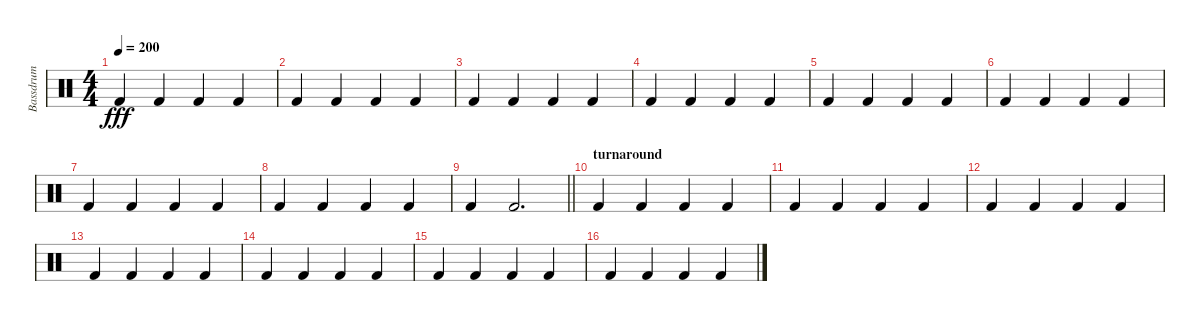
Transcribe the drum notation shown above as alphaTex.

\track ("Bassdrum" "Bassdrum") {instrument percussion}
\staff {score}
\articulation defaults
\ts (4 4)
\tempo 200
\clef neutral
\ks c "Kick (hit) 2".4{dy fff} "Kick (hit) 2".4 "Kick (hit) 2".4 "Kick (hit) 2".4
|
"Kick (hit) 2".4 "Kick (hit) 2".4 "Kick (hit) 2".4 "Kick (hit) 2".4 |
"Kick (hit) 2".4 "Kick (hit) 2".4 "Kick (hit) 2".4 "Kick (hit) 2".4 |
"Kick (hit) 2".4 "Kick (hit) 2".4 "Kick (hit) 2".4 "Kick (hit) 2".4 |
"Kick (hit) 2".4 "Kick (hit) 2".4 "Kick (hit) 2".4 "Kick (hit) 2".4 |
"Kick (hit) 2".4 "Kick (hit) 2".4 "Kick (hit) 2".4 "Kick (hit) 2".4 |
"Kick (hit) 2".4 "Kick (hit) 2".4 "Kick (hit) 2".4 "Kick (hit) 2".4 |
"Kick (hit) 2".4 "Kick (hit) 2".4 "Kick (hit) 2".4 "Kick (hit) 2".4 |
\barLineRight lightlight "Kick (hit) 2".4 "Kick (hit) 2".2{d}
|
\section ("" "turnaround")
"Kick (hit) 2".4 "Kick (hit) 2".4 "Kick (hit) 2".4 "Kick (hit) 2".4 |
"Kick (hit) 2".4 "Kick (hit) 2".4 "Kick (hit) 2".4 "Kick (hit) 2".4 |
"Kick (hit) 2".4 "Kick (hit) 2".4 "Kick (hit) 2".4 "Kick (hit) 2".4 |
"Kick (hit) 2".4 "Kick (hit) 2".4 "Kick (hit) 2".4 "Kick (hit) 2".4 |
"Kick (hit) 2".4 "Kick (hit) 2".4 "Kick (hit) 2".4 "Kick (hit) 2".4 |
"Kick (hit) 2".4 "Kick (hit) 2".4 "Kick (hit) 2".4 "Kick (hit) 2".4 |
"Kick (hit) 2".4 "Kick (hit) 2".4 "Kick (hit) 2".4 "Kick (hit) 2".4
